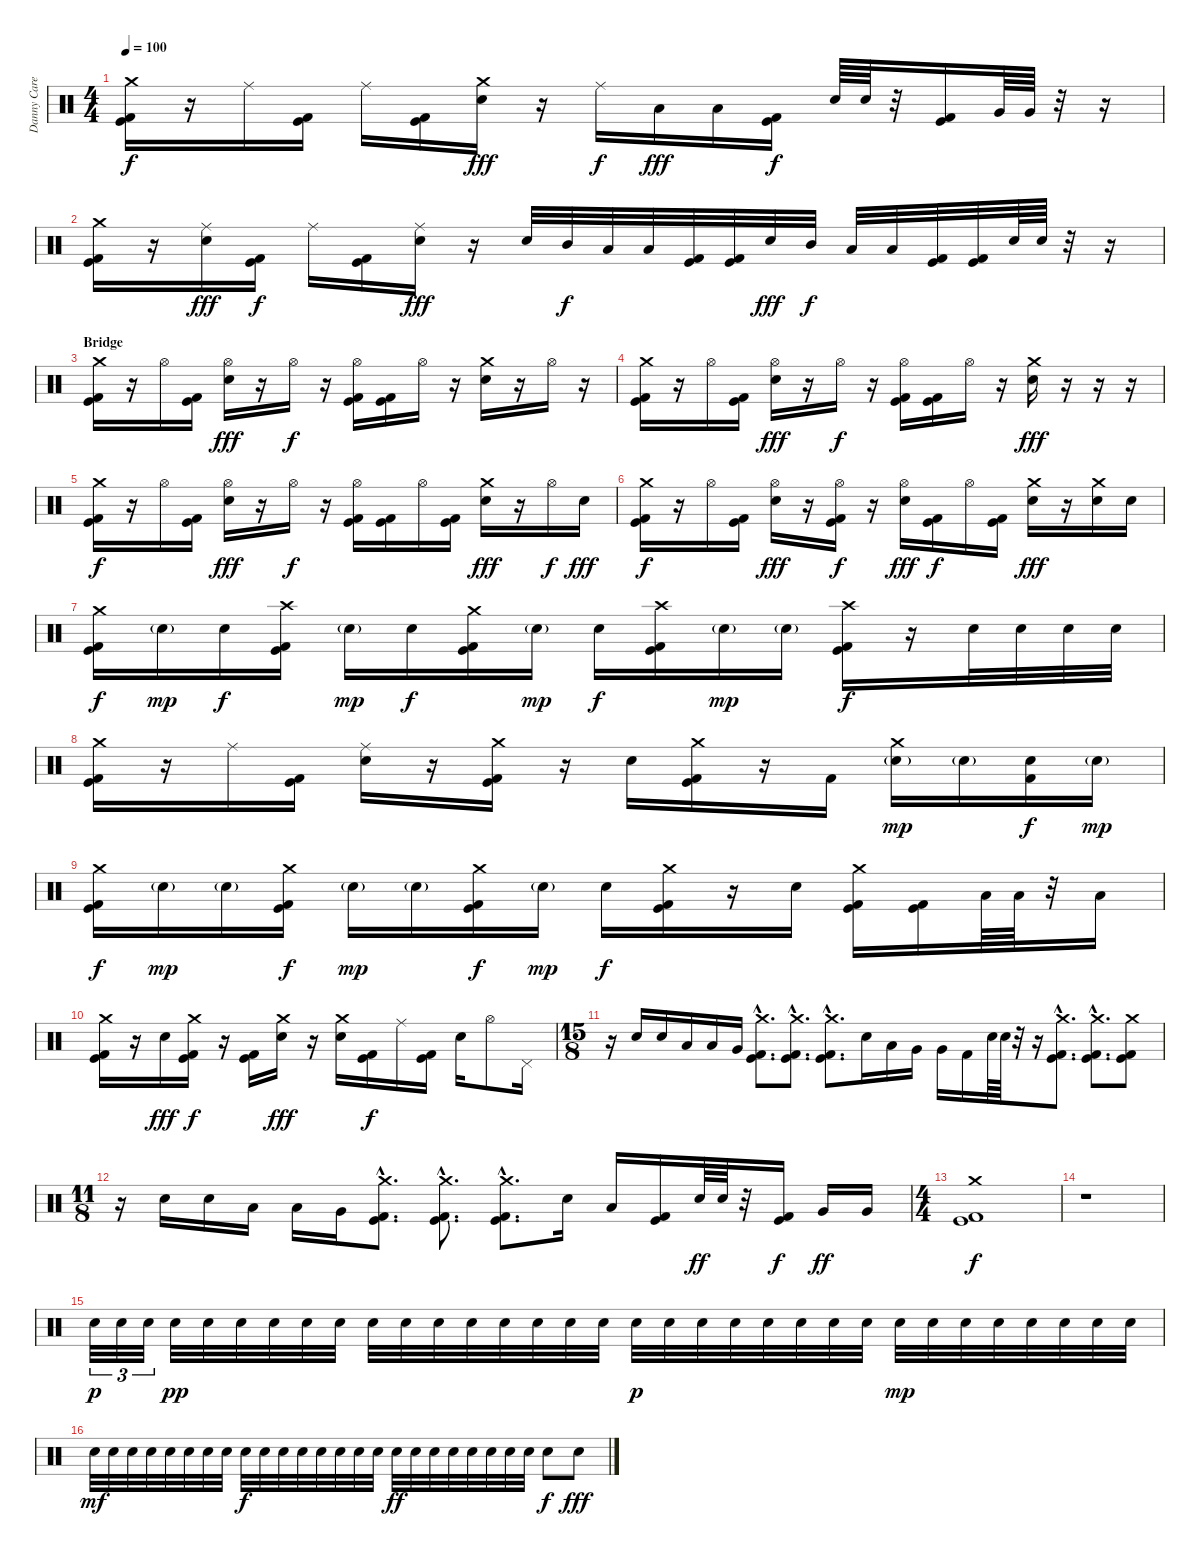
\track ("Danny Carey - Percussion" "Danny Care") {instrument percussion}
\staff {score}
\articulation defaults
\ts (4 4)
\tempo 100
\clef neutral
\ks c
("Crash medium (hit)" "Kick (hit)" "Kick (hit) 2").16{dy f} r.16 "Ride (middle)".16 ("Kick (hit)" "Kick (hit) 2").16 "Ride (middle)".16 ("Kick (hit)" "Kick (hit) 2").16 ("Crash medium (hit)" "Electric Snare (hit)").16{dy fff} r.16 "Ride (middle)".16{dy f} "Low Tom (hit)".16{dy fff} "Low Tom (hit)".16 ("Kick (hit)" "Kick (hit) 2").16{dy f} "Electric Snare (hit)".64 "Electric Snare (hit)".64 r.32 ("Kick (hit)" "Kick (hit) 2").16 "Very Low Tom (hit)".64 "Very Low Tom (hit)".64 r.32 r.16 |
("Crash medium (hit)" "Kick (hit)" "Kick (hit) 2").16 r.16 ("Ride (middle)" "Electric Snare (hit)").16{dy fff} ("Kick (hit)" "Kick (hit) 2").16{dy f} "Ride (middle)".16 ("Kick (hit)" "Kick (hit) 2").16 ("Ride (middle)" "Electric Snare (hit)").16{dy fff} r.16 "Electric Snare (hit)".32 "Mid Tom (hit)".32{dy f} "Low Tom (hit)".32 "Low Tom (hit)".32 ("Kick (hit)" "Kick (hit) 2").32 ("Kick (hit)" "Kick (hit) 2").32 "Electric Snare (hit)".32{dy fff} "Mid Tom (hit)".32{dy f} "Low Tom (hit)".32 "Low Tom (hit)".32 ("Kick (hit)" "Kick (hit) 2").32 ("Kick (hit)" "Kick (hit) 2").32 "Electric Snare (hit)".64 "Electric Snare (hit)".64 r.32 r.16 |
\section ("" "Bridge")
("Crash medium (hit)" "Kick (hit)" "Kick (hit) 2").16 r.16 "Hi-Hat (open)".16 ("Kick (hit)" "Kick (hit) 2").16 ("Hi-Hat (open)" "Electric Snare (hit)").16{dy fff} r.16 "Hi-Hat (open)".16{dy f} r.16 ("Hi-Hat (open)" "Kick (hit)" "Kick (hit) 2").16 ("Kick (hit)" "Kick (hit) 2").16 "Hi-Hat (open)".16 r.16 ("Crash medium (hit)" "Electric Snare (hit)").16 r.16 "Hi-Hat (open)".16 r.16 |
("Crash medium (hit)" "Kick (hit)" "Kick (hit) 2").16 r.16 "Hi-Hat (open)".16 ("Kick (hit)" "Kick (hit) 2").16 ("Hi-Hat (open)" "Electric Snare (hit)").16{dy fff} r.16 "Hi-Hat (open)".16{dy f} r.16 ("Hi-Hat (open)" "Kick (hit)" "Kick (hit) 2").16 ("Kick (hit)" "Kick (hit) 2").16 "Hi-Hat (open)".16 r.16 ("Crash medium (hit)" "Electric Snare (hit)").16{dy fff} r.16 r.16 r.16 |
("Crash medium (hit)" "Kick (hit)" "Kick (hit) 2").16{dy f} r.16 "Hi-Hat (open)".16 ("Kick (hit)" "Kick (hit) 2").16 ("Hi-Hat (open)" "Electric Snare (hit)").16{dy fff} r.16 "Hi-Hat (open)".16{dy f} r.16 ("Hi-Hat (open)" "Kick (hit)" "Kick (hit) 2").16 ("Kick (hit)" "Kick (hit) 2").16 "Hi-Hat (open)".16 ("Kick (hit)" "Kick (hit) 2").16 ("Crash medium (hit)" "Electric Snare (hit)").16{dy fff} r.16 "Hi-Hat (open)".16{dy f} "Electric Snare (hit)".16{dy fff} |
("Crash medium (hit)" "Kick (hit)" "Kick (hit) 2").16{dy f} r.16 "Hi-Hat (open)".16 ("Kick (hit)" "Kick (hit) 2").16 ("Hi-Hat (open)" "Electric Snare (hit)").16{dy fff} r.16 ("Hi-Hat (open)" "Kick (hit)" "Kick (hit) 2").16{dy f} r.16 ("Hi-Hat (open)" "Electric Snare (hit)").16{dy fff} ("Kick (hit)" "Kick (hit) 2").16{dy f} "Hi-Hat (open)".16 ("Kick (hit)" "Kick (hit) 2").16 ("Crash medium (hit)" "Electric Snare (hit)").16{dy fff} r.16 ("Crash medium (hit)" "Electric Snare (hit)").16 "Electric Snare (hit)".16 |
("Crash medium (hit)" "Kick (hit)" "Kick (hit) 2").16{dy f} "Electric Snare (hit)"{g}.16{dy mp} "Electric Snare (hit)".16{dy f} ("Crash high (hit)" "Kick (hit)" "Kick (hit) 2").16 "Electric Snare (hit)"{g}.16{dy mp} "Electric Snare (hit)".16{dy f} ("Crash medium (hit)" "Kick (hit)" "Kick (hit) 2").16 "Electric Snare (hit)"{g}.16{dy mp} "Electric Snare (hit)".16{dy f} ("Crash high (hit)" "Kick (hit)" "Kick (hit) 2").16 "Electric Snare (hit)"{g}.16{dy mp} "Electric Snare (hit)"{g}.16 ("Crash high (hit)" "Kick (hit)" "Kick (hit) 2").16{dy f} r.16 "Electric Snare (hit)".32 "Electric Snare (hit)".32 "Electric Snare (hit)".32 "Electric Snare (hit)".32 |
("Crash medium (hit)" "Kick (hit)" "Kick (hit) 2").16 r.16 "Ride (middle)".16 ("Kick (hit)" "Kick (hit) 2").16 ("Ride (middle)" "Electric Snare (hit)").16 r.16 ("Crash medium (hit)" "Kick (hit)" "Kick (hit) 2").16 r.16 "Electric Snare (hit)".16 ("Crash medium (hit)" "Kick (hit)" "Kick (hit) 2").16 r.16 "Kick (hit) 2".16 ("Crash medium (hit)" "Electric Snare (hit)"{g}).16{dy mp} "Electric Snare (hit)"{g}.16 ("Electric Snare (hit)" "Kick (hit) 2").16{dy f} "Electric Snare (hit)"{g}.16{dy mp} |
("Crash medium (hit)" "Kick (hit)" "Kick (hit) 2").16{dy f} "Electric Snare (hit)"{g}.16{dy mp} "Electric Snare (hit)"{g}.16 ("Crash medium (hit)" "Kick (hit)" "Kick (hit) 2").16{dy f} "Electric Snare (hit)"{g}.16{dy mp} "Electric Snare (hit)"{g}.16 ("Crash medium (hit)" "Kick (hit)" "Kick (hit) 2").16{dy f} "Electric Snare (hit)"{g}.16{dy mp} "Electric Snare (hit)".16{dy f} ("Crash medium (hit)" "Kick (hit)" "Kick (hit) 2").16 r.16 "Electric Snare (hit)".16 ("Crash medium (hit)" "Kick (hit)" "Kick (hit) 2").16 ("Kick (hit)" "Kick (hit) 2").16 "Low Tom (hit)".64 "Low Tom (hit)".64 r.32 "Low Tom (hit)".16 |
("Crash medium (hit)" "Kick (hit)" "Kick (hit) 2").16 r.16 "Electric Snare (hit)".16{dy fff} ("Crash medium (hit)" "Kick (hit)" "Kick (hit) 2").16{dy f} r.16 ("Kick (hit)" "Kick (hit) 2").16 ("Crash medium (hit)" "Electric Snare (hit)").16{dy fff} r.16 ("Crash medium (hit)" "Electric Snare (hit)").16 ("Kick (hit)" "Kick (hit) 2").16{dy f} "Ride (middle)".16 ("Kick (hit)" "Kick (hit) 2").16 "Electric Snare (hit)".16 "Hi-Hat (open)".8 "Pedal Hi-Hat (hit)".16 |
\ts (15 8)
r.16 "Electric Snare (hit)".16 "Electric Snare (hit)".16 "Low Tom (hit)".16 "Low Tom (hit)".16 "Very Low Tom (hit)".16 ("Crash medium (hit)"{hac} "Kick (hit)"{hac} "Kick (hit) 2"{hac}).8{d} ("Crash medium (hit)"{hac} "Kick (hit)"{hac} "Kick (hit) 2"{hac}).8{d} ("Crash medium (hit)"{hac} "Kick (hit)"{hac} "Kick (hit) 2"{hac}).8{d} "Electric Snare (hit)".16 "Low Tom (hit)".16 "Very Low Tom (hit)".16 "Very Low Tom (hit)".16 "Kick (hit) 2".16 "Electric Snare (hit)".64 "Electric Snare (hit)".64 r.32 r.16 ("Crash medium (hit)"{hac} "Kick (hit)"{hac} "Kick (hit) 2"{hac}).8{d} ("Crash medium (hit)"{hac} "Kick (hit)"{hac} "Kick (hit) 2"{hac}).8{d} ("Crash medium (hit)" "Kick (hit)" "Kick (hit) 2").8 |
\ts (11 8)
r.16 "Electric Snare (hit)".16 "Electric Snare (hit)".16 "Low Tom (hit)".16 "Low Tom (hit)".16 "Very Low Tom (hit)".16 ("Crash medium (hit)"{hac} "Kick (hit)"{hac} "Kick (hit) 2"{hac}).8{d} ("Crash medium (hit)"{hac} "Kick (hit)"{hac} "Kick (hit) 2"{hac}).8{d} ("Crash medium (hit)"{hac} "Kick (hit)"{hac} "Kick (hit) 2"{hac}).8{d} "Electric Snare (hit)".16 "Low Tom (hit)".16 ("Kick (hit)" "Kick (hit) 2").16 "Electric Snare (hit)".64{dy ff} "Electric Snare (hit)".64 r.32 ("Kick (hit)" "Kick (hit) 2").16{dy f} "Very Low Tom (hit)".16{dy ff} "Very Low Tom (hit)".16 |
\ts (4 4)
("Crash medium (hit)" "Kick (hit)" "Kick (hit) 2").1{dy f} |
r.1 |
"Electric Snare (hit)".32{tu (3 2) dy p} "Electric Snare (hit)".32{tu (3 2)} "Electric Snare (hit)".32{tu (3 2)} "Electric Snare (hit)".32{dy pp} "Electric Snare (hit)".32 "Electric Snare (hit)".32 "Electric Snare (hit)".32 "Electric Snare (hit)".32 "Electric Snare (hit)".32 "Electric Snare (hit)".32 "Electric Snare (hit)".32 "Electric Snare (hit)".32 "Electric Snare (hit)".32 "Electric Snare (hit)".32 "Electric Snare (hit)".32 "Electric Snare (hit)".32 "Electric Snare (hit)".32 "Electric Snare (hit)".32{dy p} "Electric Snare (hit)".32 "Electric Snare (hit)".32 "Electric Snare (hit)".32 "Electric Snare (hit)".32 "Electric Snare (hit)".32 "Electric Snare (hit)".32 "Electric Snare (hit)".32 "Electric Snare (hit)".32{dy mp} "Electric Snare (hit)".32 "Electric Snare (hit)".32 "Electric Snare (hit)".32 "Electric Snare (hit)".32 "Electric Snare (hit)".32 "Electric Snare (hit)".32 "Electric Snare (hit)".32 |
"Electric Snare (hit)".32{dy mf} "Electric Snare (hit)".32 "Electric Snare (hit)".32 "Electric Snare (hit)".32 "Electric Snare (hit)".32 "Electric Snare (hit)".32 "Electric Snare (hit)".32 "Electric Snare (hit)".32 "Electric Snare (hit)".32{dy f} "Electric Snare (hit)".32 "Electric Snare (hit)".32 "Electric Snare (hit)".32 "Electric Snare (hit)".32 "Electric Snare (hit)".32 "Electric Snare (hit)".32 "Electric Snare (hit)".32 "Electric Snare (hit)".32{dy ff} "Electric Snare (hit)".32 "Electric Snare (hit)".32 "Electric Snare (hit)".32 "Electric Snare (hit)".32 "Electric Snare (hit)".32 "Electric Snare (hit)".32 "Electric Snare (hit)".32 "Electric Snare (hit)".8{dy f} "Electric Snare (hit)".8{dy fff}
